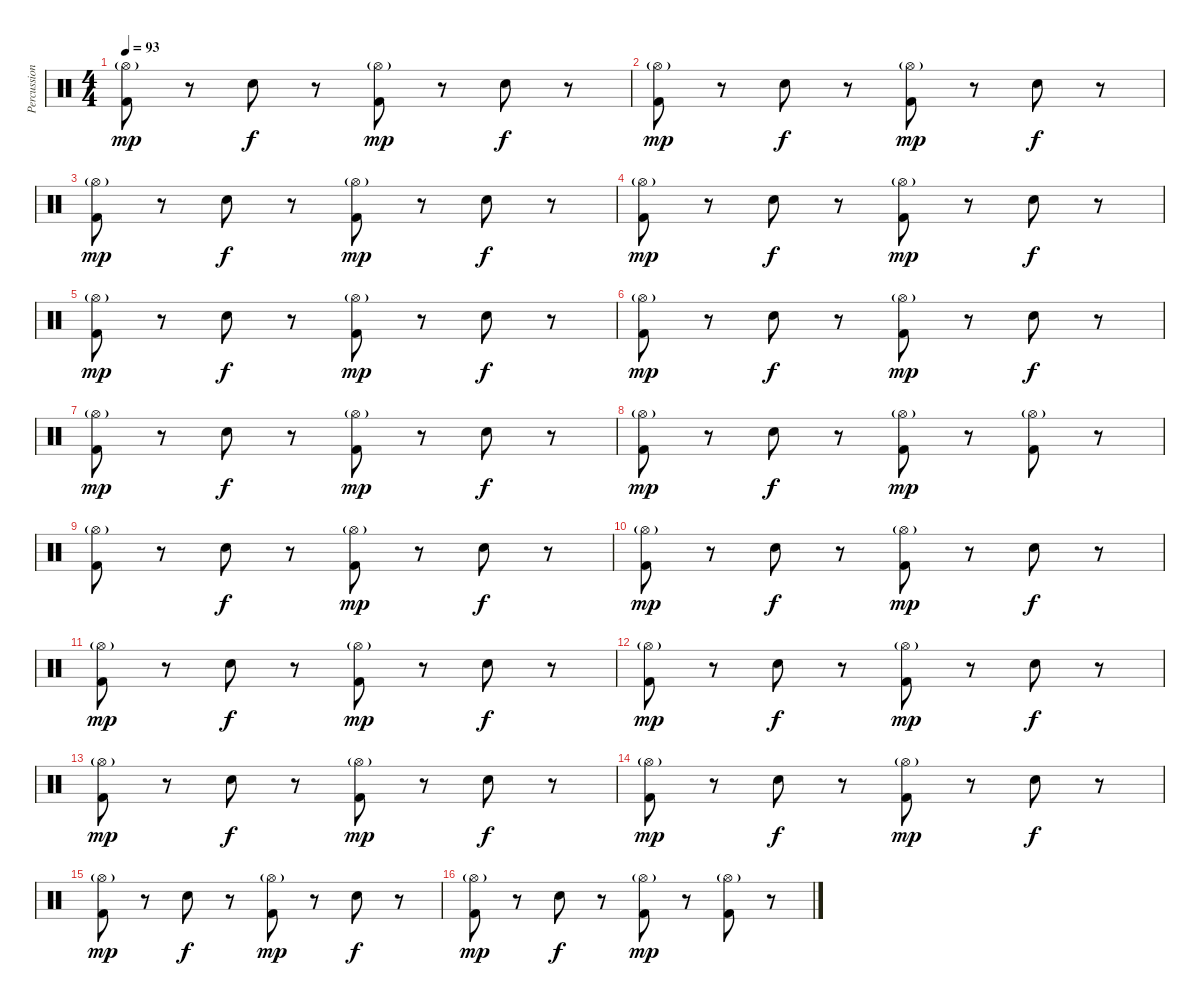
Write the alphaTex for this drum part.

\track ("Percussion" "Percussion") {instrument percussion}
\staff {score}
\articulation defaults
\ts (4 4)
\tempo 93
\clef neutral
\ks c
("Hi-Hat (open)"{g} "Kick (hit) 2").8{dy mp} r.8 "Snare (hit) 2".8{dy f} r.8 ("Hi-Hat (open)"{g} "Kick (hit) 2").8{dy mp} r.8 "Snare (hit) 2".8{dy f} r.8 |
("Hi-Hat (open)"{g} "Kick (hit) 2").8{dy mp} r.8 "Snare (hit) 2".8{dy f} r.8 ("Hi-Hat (open)"{g} "Kick (hit) 2").8{dy mp} r.8 "Snare (hit) 2".8{dy f} r.8 |
("Hi-Hat (open)"{g} "Kick (hit) 2").8{dy mp} r.8 "Snare (hit) 2".8{dy f} r.8 ("Hi-Hat (open)"{g} "Kick (hit) 2").8{dy mp} r.8 "Snare (hit) 2".8{dy f} r.8 |
("Hi-Hat (open)"{g} "Kick (hit) 2").8{dy mp} r.8 "Snare (hit) 2".8{dy f} r.8 ("Hi-Hat (open)"{g} "Kick (hit) 2").8{dy mp} r.8 "Snare (hit) 2".8{dy f} r.8 |
("Hi-Hat (open)"{g} "Kick (hit) 2").8{dy mp} r.8 "Snare (hit) 2".8{dy f} r.8 ("Hi-Hat (open)"{g} "Kick (hit) 2").8{dy mp} r.8 "Snare (hit) 2".8{dy f} r.8 |
("Hi-Hat (open)"{g} "Kick (hit) 2").8{dy mp} r.8 "Snare (hit) 2".8{dy f} r.8 ("Hi-Hat (open)"{g} "Kick (hit) 2").8{dy mp} r.8 "Snare (hit) 2".8{dy f} r.8 |
("Hi-Hat (open)"{g} "Kick (hit) 2").8{dy mp} r.8 "Snare (hit) 2".8{dy f} r.8 ("Hi-Hat (open)"{g} "Kick (hit) 2").8{dy mp} r.8 "Snare (hit) 2".8{dy f} r.8 |
("Hi-Hat (open)"{g} "Kick (hit) 2").8{dy mp} r.8 "Snare (hit) 2".8{dy f} r.8 ("Hi-Hat (open)"{g} "Kick (hit) 2").8{dy mp} r.8 ("Hi-Hat (open)"{g} "Kick (hit) 2").8 r.8 |
("Hi-Hat (open)"{g} "Kick (hit) 2").8 r.8 "Snare (hit) 2".8{dy f} r.8 ("Hi-Hat (open)"{g} "Kick (hit) 2").8{dy mp} r.8 "Snare (hit) 2".8{dy f} r.8 |
("Hi-Hat (open)"{g} "Kick (hit) 2").8{dy mp} r.8 "Snare (hit) 2".8{dy f} r.8 ("Hi-Hat (open)"{g} "Kick (hit) 2").8{dy mp} r.8 "Snare (hit) 2".8{dy f} r.8 |
("Hi-Hat (open)"{g} "Kick (hit) 2").8{dy mp} r.8 "Snare (hit) 2".8{dy f} r.8 ("Hi-Hat (open)"{g} "Kick (hit) 2").8{dy mp} r.8 "Snare (hit) 2".8{dy f} r.8 |
("Hi-Hat (open)"{g} "Kick (hit) 2").8{dy mp} r.8 "Snare (hit) 2".8{dy f} r.8 ("Hi-Hat (open)"{g} "Kick (hit) 2").8{dy mp} r.8 "Snare (hit) 2".8{dy f} r.8 |
("Hi-Hat (open)"{g} "Kick (hit) 2").8{dy mp} r.8 "Snare (hit) 2".8{dy f} r.8 ("Hi-Hat (open)"{g} "Kick (hit) 2").8{dy mp} r.8 "Snare (hit) 2".8{dy f} r.8 |
("Hi-Hat (open)"{g} "Kick (hit) 2").8{dy mp} r.8 "Snare (hit) 2".8{dy f} r.8 ("Hi-Hat (open)"{g} "Kick (hit) 2").8{dy mp} r.8 "Snare (hit) 2".8{dy f} r.8 |
("Hi-Hat (open)"{g} "Kick (hit) 2").8{dy mp} r.8 "Snare (hit) 2".8{dy f} r.8 ("Hi-Hat (open)"{g} "Kick (hit) 2").8{dy mp} r.8 "Snare (hit) 2".8{dy f} r.8 |
("Hi-Hat (open)"{g} "Kick (hit) 2").8{dy mp} r.8 "Snare (hit) 2".8{dy f} r.8 ("Hi-Hat (open)"{g} "Kick (hit) 2").8{dy mp} r.8 ("Hi-Hat (open)"{g} "Kick (hit) 2").8 r.8
